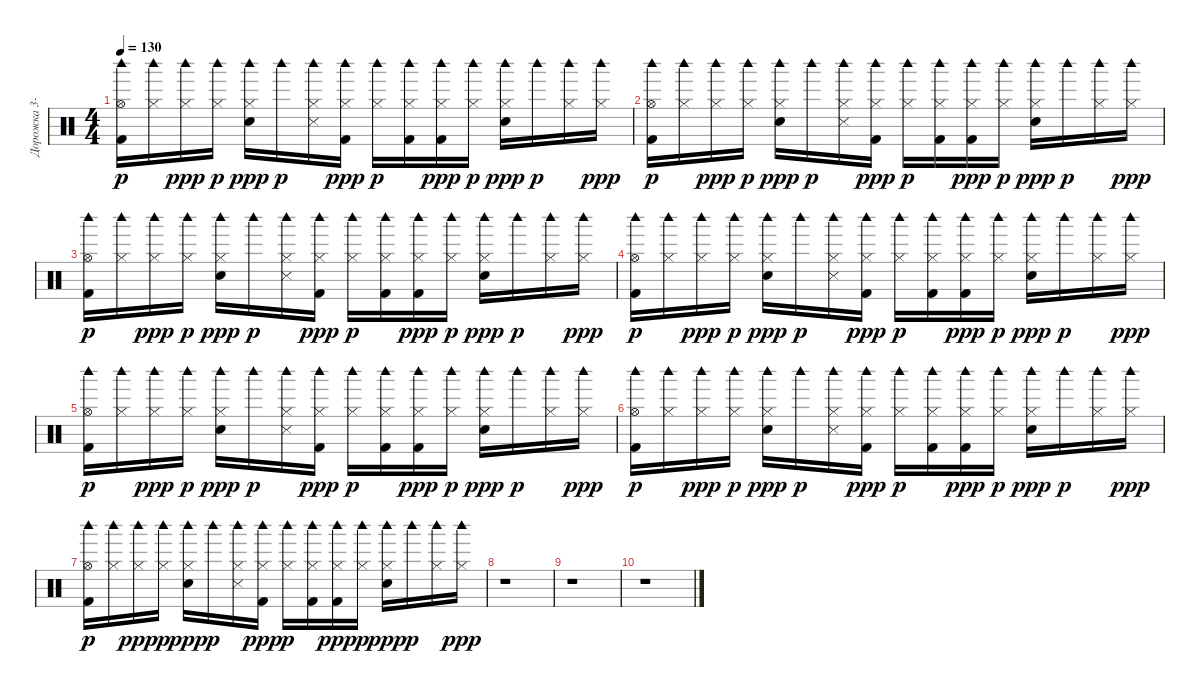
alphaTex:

\track ("Дорожка 3-4-5" "Дорожка 3-") {instrument percussion}
\staff {score}
\articulation defaults
\ts (4 4)
\tempo 130
\clef neutral
\ks c
("Kick (hit) 2" "Hi-Hat (open)" "Woodblock high (hit)").16{dy p} ("Hi-Hat (closed)" "Woodblock high (hit)").16 ("Hi-Hat (closed)" "Woodblock high (hit)").16{dy ppp} ("Hi-Hat (closed)" "Woodblock high (hit)").16{dy p} ("Electric Snare (hit)" "Hi-Hat (closed)" "Woodblock high (hit)").16{dy ppp} "Woodblock high (hit)".16{dy p} ("Snare (side stick) 3" "Hi-Hat (closed)" "Woodblock high (hit)").16 ("Kick (hit) 2" "Hi-Hat (closed)" "Woodblock high (hit)").16{dy ppp} ("Hi-Hat (closed)" "Woodblock high (hit)").16{dy p} ("Kick (hit) 2" "Hi-Hat (closed)" "Woodblock high (hit)").16 ("Kick (hit) 2" "Hi-Hat (closed)" "Woodblock high (hit)").16{dy ppp} ("Hi-Hat (closed)" "Woodblock high (hit)").16{dy p} ("Electric Snare (hit)" "Hi-Hat (closed)" "Woodblock high (hit)").16{dy ppp} "Woodblock high (hit)".16{dy p} ("Hi-Hat (closed)" "Woodblock high (hit)").16 ("Hi-Hat (closed)" "Woodblock high (hit)").16{dy ppp} |
("Kick (hit) 2" "Hi-Hat (open)" "Woodblock high (hit)").16{dy p} ("Hi-Hat (closed)" "Woodblock high (hit)").16 ("Hi-Hat (closed)" "Woodblock high (hit)").16{dy ppp} ("Hi-Hat (closed)" "Woodblock high (hit)").16{dy p} ("Electric Snare (hit)" "Hi-Hat (closed)" "Woodblock high (hit)").16{dy ppp} "Woodblock high (hit)".16{dy p} ("Snare (side stick) 3" "Hi-Hat (closed)" "Woodblock high (hit)").16 ("Kick (hit) 2" "Hi-Hat (closed)" "Woodblock high (hit)").16{dy ppp} ("Hi-Hat (closed)" "Woodblock high (hit)").16{dy p} ("Kick (hit) 2" "Hi-Hat (closed)" "Woodblock high (hit)").16 ("Kick (hit) 2" "Hi-Hat (closed)" "Woodblock high (hit)").16{dy ppp} ("Hi-Hat (closed)" "Woodblock high (hit)").16{dy p} ("Electric Snare (hit)" "Hi-Hat (closed)" "Woodblock high (hit)").16{dy ppp} "Woodblock high (hit)".16{dy p} ("Hi-Hat (closed)" "Woodblock high (hit)").16 ("Hi-Hat (closed)" "Woodblock high (hit)").16{dy ppp} |
("Kick (hit) 2" "Hi-Hat (open)" "Woodblock high (hit)").16{dy p} ("Hi-Hat (closed)" "Woodblock high (hit)").16 ("Hi-Hat (closed)" "Woodblock high (hit)").16{dy ppp} ("Hi-Hat (closed)" "Woodblock high (hit)").16{dy p} ("Electric Snare (hit)" "Hi-Hat (closed)" "Woodblock high (hit)").16{dy ppp} "Woodblock high (hit)".16{dy p} ("Snare (side stick) 3" "Hi-Hat (closed)" "Woodblock high (hit)").16 ("Kick (hit) 2" "Hi-Hat (closed)" "Woodblock high (hit)").16{dy ppp} ("Hi-Hat (closed)" "Woodblock high (hit)").16{dy p} ("Kick (hit) 2" "Hi-Hat (closed)" "Woodblock high (hit)").16 ("Kick (hit) 2" "Hi-Hat (closed)" "Woodblock high (hit)").16{dy ppp} ("Hi-Hat (closed)" "Woodblock high (hit)").16{dy p} ("Electric Snare (hit)" "Hi-Hat (closed)" "Woodblock high (hit)").16{dy ppp} "Woodblock high (hit)".16{dy p} ("Hi-Hat (closed)" "Woodblock high (hit)").16 ("Hi-Hat (closed)" "Woodblock high (hit)").16{dy ppp} |
("Kick (hit) 2" "Hi-Hat (open)" "Woodblock high (hit)").16{dy p} ("Hi-Hat (closed)" "Woodblock high (hit)").16 ("Hi-Hat (closed)" "Woodblock high (hit)").16{dy ppp} ("Hi-Hat (closed)" "Woodblock high (hit)").16{dy p} ("Electric Snare (hit)" "Hi-Hat (closed)" "Woodblock high (hit)").16{dy ppp} "Woodblock high (hit)".16{dy p} ("Snare (side stick) 3" "Hi-Hat (closed)" "Woodblock high (hit)").16 ("Kick (hit) 2" "Hi-Hat (closed)" "Woodblock high (hit)").16{dy ppp} ("Hi-Hat (closed)" "Woodblock high (hit)").16{dy p} ("Kick (hit) 2" "Hi-Hat (closed)" "Woodblock high (hit)").16 ("Kick (hit) 2" "Hi-Hat (closed)" "Woodblock high (hit)").16{dy ppp} ("Hi-Hat (closed)" "Woodblock high (hit)").16{dy p} ("Electric Snare (hit)" "Hi-Hat (closed)" "Woodblock high (hit)").16{dy ppp} "Woodblock high (hit)".16{dy p} ("Hi-Hat (closed)" "Woodblock high (hit)").16 ("Hi-Hat (closed)" "Woodblock high (hit)").16{dy ppp} |
("Kick (hit) 2" "Hi-Hat (open)" "Woodblock high (hit)").16{dy p} ("Hi-Hat (closed)" "Woodblock high (hit)").16 ("Hi-Hat (closed)" "Woodblock high (hit)").16{dy ppp} ("Hi-Hat (closed)" "Woodblock high (hit)").16{dy p} ("Electric Snare (hit)" "Hi-Hat (closed)" "Woodblock high (hit)").16{dy ppp} "Woodblock high (hit)".16{dy p} ("Snare (side stick) 3" "Hi-Hat (closed)" "Woodblock high (hit)").16 ("Kick (hit) 2" "Hi-Hat (closed)" "Woodblock high (hit)").16{dy ppp} ("Hi-Hat (closed)" "Woodblock high (hit)").16{dy p} ("Kick (hit) 2" "Hi-Hat (closed)" "Woodblock high (hit)").16 ("Kick (hit) 2" "Hi-Hat (closed)" "Woodblock high (hit)").16{dy ppp} ("Hi-Hat (closed)" "Woodblock high (hit)").16{dy p} ("Electric Snare (hit)" "Hi-Hat (closed)" "Woodblock high (hit)").16{dy ppp} "Woodblock high (hit)".16{dy p} ("Hi-Hat (closed)" "Woodblock high (hit)").16 ("Hi-Hat (closed)" "Woodblock high (hit)").16{dy ppp} |
("Kick (hit) 2" "Hi-Hat (open)" "Woodblock high (hit)").16{dy p} ("Hi-Hat (closed)" "Woodblock high (hit)").16 ("Hi-Hat (closed)" "Woodblock high (hit)").16{dy ppp} ("Hi-Hat (closed)" "Woodblock high (hit)").16{dy p} ("Electric Snare (hit)" "Hi-Hat (closed)" "Woodblock high (hit)").16{dy ppp} "Woodblock high (hit)".16{dy p} ("Snare (side stick) 3" "Hi-Hat (closed)" "Woodblock high (hit)").16 ("Kick (hit) 2" "Hi-Hat (closed)" "Woodblock high (hit)").16{dy ppp} ("Hi-Hat (closed)" "Woodblock high (hit)").16{dy p} ("Kick (hit) 2" "Hi-Hat (closed)" "Woodblock high (hit)").16 ("Kick (hit) 2" "Hi-Hat (closed)" "Woodblock high (hit)").16{dy ppp} ("Hi-Hat (closed)" "Woodblock high (hit)").16{dy p} ("Electric Snare (hit)" "Hi-Hat (closed)" "Woodblock high (hit)").16{dy ppp} "Woodblock high (hit)".16{dy p} ("Hi-Hat (closed)" "Woodblock high (hit)").16 ("Hi-Hat (closed)" "Woodblock high (hit)").16{dy ppp} |
("Kick (hit) 2" "Hi-Hat (open)" "Woodblock high (hit)").16{dy p} ("Hi-Hat (closed)" "Woodblock high (hit)").16 ("Hi-Hat (closed)" "Woodblock high (hit)").16{dy ppp} ("Hi-Hat (closed)" "Woodblock high (hit)").16{dy p} ("Electric Snare (hit)" "Hi-Hat (closed)" "Woodblock high (hit)").16{dy ppp} "Woodblock high (hit)".16{dy p} ("Snare (side stick) 3" "Hi-Hat (closed)" "Woodblock high (hit)").16 ("Kick (hit) 2" "Hi-Hat (closed)" "Woodblock high (hit)").16{dy ppp} ("Hi-Hat (closed)" "Woodblock high (hit)").16{dy p} ("Kick (hit) 2" "Hi-Hat (closed)" "Woodblock high (hit)").16 ("Kick (hit) 2" "Hi-Hat (closed)" "Woodblock high (hit)").16{dy ppp} ("Hi-Hat (closed)" "Woodblock high (hit)").16{dy p} ("Electric Snare (hit)" "Hi-Hat (closed)" "Woodblock high (hit)").16{dy ppp} "Woodblock high (hit)".16{dy p} ("Hi-Hat (closed)" "Woodblock high (hit)").16 ("Hi-Hat (closed)" "Woodblock high (hit)").16{dy ppp} |
r.1 |
r.1 |
r.1
